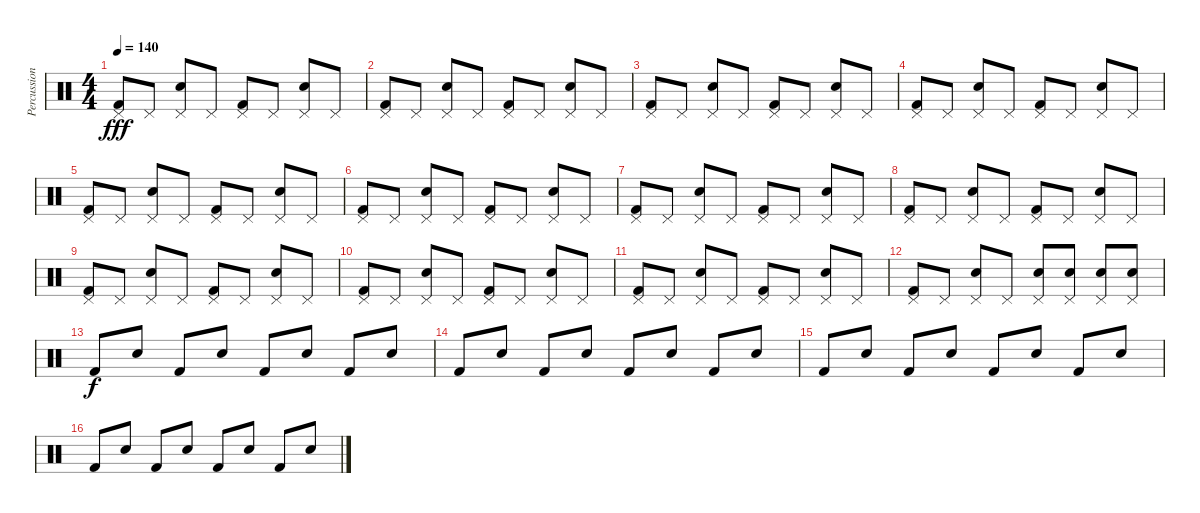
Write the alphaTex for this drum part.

\track ("Percussions" "Percussion") {instrument percussion}
\staff {score}
\articulation defaults
\ts (4 4)
\tempo 140
\clef neutral
\ks c
("Pedal Hi-Hat (hit)" "Kick (hit) 2").8{dy fff} "Pedal Hi-Hat (hit)".8 ("Pedal Hi-Hat (hit)" "Electric Snare (hit)").8 "Pedal Hi-Hat (hit)".8 ("Pedal Hi-Hat (hit)" "Kick (hit) 2").8 "Pedal Hi-Hat (hit)".8 ("Pedal Hi-Hat (hit)" "Electric Snare (hit)").8 "Pedal Hi-Hat (hit)".8 |
("Pedal Hi-Hat (hit)" "Kick (hit) 2").8 "Pedal Hi-Hat (hit)".8 ("Pedal Hi-Hat (hit)" "Electric Snare (hit)").8 "Pedal Hi-Hat (hit)".8 ("Pedal Hi-Hat (hit)" "Kick (hit) 2").8 "Pedal Hi-Hat (hit)".8 ("Pedal Hi-Hat (hit)" "Electric Snare (hit)").8 "Pedal Hi-Hat (hit)".8 |
("Pedal Hi-Hat (hit)" "Kick (hit) 2").8 "Pedal Hi-Hat (hit)".8 ("Pedal Hi-Hat (hit)" "Electric Snare (hit)").8 "Pedal Hi-Hat (hit)".8 ("Pedal Hi-Hat (hit)" "Kick (hit) 2").8 "Pedal Hi-Hat (hit)".8 ("Pedal Hi-Hat (hit)" "Electric Snare (hit)").8 "Pedal Hi-Hat (hit)".8 |
("Pedal Hi-Hat (hit)" "Kick (hit) 2").8 "Pedal Hi-Hat (hit)".8 ("Pedal Hi-Hat (hit)" "Electric Snare (hit)").8 "Pedal Hi-Hat (hit)".8 ("Pedal Hi-Hat (hit)" "Kick (hit) 2").8 "Pedal Hi-Hat (hit)".8 ("Pedal Hi-Hat (hit)" "Electric Snare (hit)").8 "Pedal Hi-Hat (hit)".8 |
("Pedal Hi-Hat (hit)" "Kick (hit) 2").8 "Pedal Hi-Hat (hit)".8 ("Pedal Hi-Hat (hit)" "Electric Snare (hit)").8 "Pedal Hi-Hat (hit)".8 ("Pedal Hi-Hat (hit)" "Kick (hit) 2").8 "Pedal Hi-Hat (hit)".8 ("Pedal Hi-Hat (hit)" "Electric Snare (hit)").8 "Pedal Hi-Hat (hit)".8 |
("Pedal Hi-Hat (hit)" "Kick (hit) 2").8 "Pedal Hi-Hat (hit)".8 ("Pedal Hi-Hat (hit)" "Electric Snare (hit)").8 "Pedal Hi-Hat (hit)".8 ("Pedal Hi-Hat (hit)" "Kick (hit) 2").8 "Pedal Hi-Hat (hit)".8 ("Pedal Hi-Hat (hit)" "Electric Snare (hit)").8 "Pedal Hi-Hat (hit)".8 |
("Pedal Hi-Hat (hit)" "Kick (hit) 2").8 "Pedal Hi-Hat (hit)".8 ("Pedal Hi-Hat (hit)" "Electric Snare (hit)").8 "Pedal Hi-Hat (hit)".8 ("Pedal Hi-Hat (hit)" "Kick (hit) 2").8 "Pedal Hi-Hat (hit)".8 ("Pedal Hi-Hat (hit)" "Electric Snare (hit)").8 "Pedal Hi-Hat (hit)".8 |
("Pedal Hi-Hat (hit)" "Kick (hit) 2").8 "Pedal Hi-Hat (hit)".8 ("Pedal Hi-Hat (hit)" "Electric Snare (hit)").8 "Pedal Hi-Hat (hit)".8 ("Pedal Hi-Hat (hit)" "Kick (hit) 2").8 "Pedal Hi-Hat (hit)".8 ("Pedal Hi-Hat (hit)" "Electric Snare (hit)").8 "Pedal Hi-Hat (hit)".8 |
("Pedal Hi-Hat (hit)" "Kick (hit) 2").8 "Pedal Hi-Hat (hit)".8 ("Pedal Hi-Hat (hit)" "Electric Snare (hit)").8 "Pedal Hi-Hat (hit)".8 ("Pedal Hi-Hat (hit)" "Kick (hit) 2").8 "Pedal Hi-Hat (hit)".8 ("Pedal Hi-Hat (hit)" "Electric Snare (hit)").8 "Pedal Hi-Hat (hit)".8 |
("Pedal Hi-Hat (hit)" "Kick (hit) 2").8 "Pedal Hi-Hat (hit)".8 ("Pedal Hi-Hat (hit)" "Electric Snare (hit)").8 "Pedal Hi-Hat (hit)".8 ("Pedal Hi-Hat (hit)" "Kick (hit) 2").8 "Pedal Hi-Hat (hit)".8 ("Pedal Hi-Hat (hit)" "Electric Snare (hit)").8 "Pedal Hi-Hat (hit)".8 |
("Pedal Hi-Hat (hit)" "Kick (hit) 2").8 "Pedal Hi-Hat (hit)".8 ("Pedal Hi-Hat (hit)" "Electric Snare (hit)").8 "Pedal Hi-Hat (hit)".8 ("Pedal Hi-Hat (hit)" "Kick (hit) 2").8 "Pedal Hi-Hat (hit)".8 ("Pedal Hi-Hat (hit)" "Electric Snare (hit)").8 "Pedal Hi-Hat (hit)".8 |
("Pedal Hi-Hat (hit)" "Kick (hit) 2").8 "Pedal Hi-Hat (hit)".8 ("Pedal Hi-Hat (hit)" "Electric Snare (hit)").8 "Pedal Hi-Hat (hit)".8 ("Pedal Hi-Hat (hit)" "Electric Snare (hit)").8 ("Pedal Hi-Hat (hit)" "Electric Snare (hit)").8 ("Pedal Hi-Hat (hit)" "Electric Snare (hit)").8 ("Pedal Hi-Hat (hit)" "Electric Snare (hit)").8 |
"Kick (hit) 2".8{dy f} "Electric Snare (hit)".8 "Kick (hit) 2".8 "Electric Snare (hit)".8 "Kick (hit) 2".8 "Electric Snare (hit)".8 "Kick (hit) 2".8 "Electric Snare (hit)".8 |
"Kick (hit) 2".8 "Electric Snare (hit)".8 "Kick (hit) 2".8 "Electric Snare (hit)".8 "Kick (hit) 2".8 "Electric Snare (hit)".8 "Kick (hit) 2".8 "Electric Snare (hit)".8 |
"Kick (hit) 2".8 "Electric Snare (hit)".8 "Kick (hit) 2".8 "Electric Snare (hit)".8 "Kick (hit) 2".8 "Electric Snare (hit)".8 "Kick (hit) 2".8 "Electric Snare (hit)".8 |
"Kick (hit) 2".8 "Electric Snare (hit)".8 "Kick (hit) 2".8 "Electric Snare (hit)".8 "Kick (hit) 2".8 "Electric Snare (hit)".8 "Kick (hit) 2".8 "Electric Snare (hit)".8
